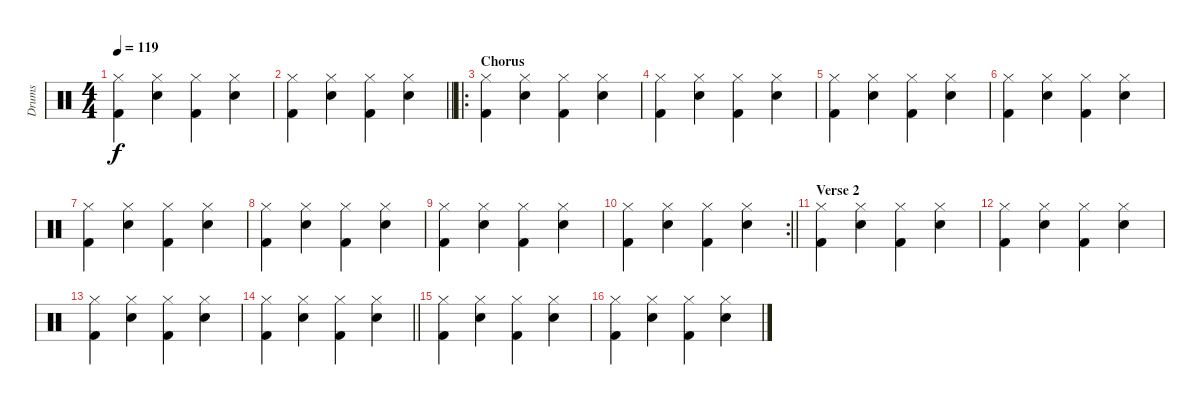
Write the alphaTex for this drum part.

\track ("Drums" "Drums") {instrument percussion}
\staff {score}
\articulation defaults
\ts (4 4)
\tempo 119
\clef neutral
\ks c
("Hi-Hat (closed)" "Kick (hit) 2").4{dy f} ("Hi-Hat (closed)" "Hand Clap (hit)").4 ("Hi-Hat (closed)" "Kick (hit) 2").4 ("Hi-Hat (closed)" "Hand Clap (hit)").4 |
\barLineRight lightlight
("Hi-Hat (closed)" "Kick (hit) 2").4 ("Hi-Hat (closed)" "Hand Clap (hit)").4 ("Hi-Hat (closed)" "Kick (hit) 2").4 ("Hi-Hat (closed)" "Hand Clap (hit)").4 |
\ro
\section ("" "Chorus")
("Hi-Hat (closed)" "Kick (hit) 2").4 ("Hi-Hat (closed)" "Hand Clap (hit)").4 ("Hi-Hat (closed)" "Kick (hit) 2").4 ("Hi-Hat (closed)" "Hand Clap (hit)").4 |
("Hi-Hat (closed)" "Kick (hit) 2").4 ("Hi-Hat (closed)" "Hand Clap (hit)").4 ("Hi-Hat (closed)" "Kick (hit) 2").4 ("Hi-Hat (closed)" "Hand Clap (hit)").4 |
("Hi-Hat (closed)" "Kick (hit) 2").4 ("Hi-Hat (closed)" "Hand Clap (hit)").4 ("Hi-Hat (closed)" "Kick (hit) 2").4 ("Hi-Hat (closed)" "Hand Clap (hit)").4 |
("Hi-Hat (closed)" "Kick (hit) 2").4 ("Hi-Hat (closed)" "Hand Clap (hit)").4 ("Hi-Hat (closed)" "Kick (hit) 2").4 ("Hi-Hat (closed)" "Hand Clap (hit)").4 |
("Hi-Hat (closed)" "Kick (hit) 2").4 ("Hi-Hat (closed)" "Hand Clap (hit)").4 ("Hi-Hat (closed)" "Kick (hit) 2").4 ("Hi-Hat (closed)" "Hand Clap (hit)").4 |
("Hi-Hat (closed)" "Kick (hit) 2").4 ("Hi-Hat (closed)" "Hand Clap (hit)").4 ("Hi-Hat (closed)" "Kick (hit) 2").4 ("Hi-Hat (closed)" "Hand Clap (hit)").4 |
("Hi-Hat (closed)" "Kick (hit) 2").4 ("Hi-Hat (closed)" "Hand Clap (hit)").4 ("Hi-Hat (closed)" "Kick (hit) 2").4 ("Hi-Hat (closed)" "Hand Clap (hit)").4 |
\rc 2
\barLineRight lightlight
("Hi-Hat (closed)" "Kick (hit) 2").4 ("Hi-Hat (closed)" "Hand Clap (hit)").4 ("Hi-Hat (closed)" "Kick (hit) 2").4 ("Hi-Hat (closed)" "Hand Clap (hit)").4 |
\section ("" "Verse 2")
("Hi-Hat (closed)" "Kick (hit) 2").4 ("Hi-Hat (closed)" "Hand Clap (hit)").4 ("Hi-Hat (closed)" "Kick (hit) 2").4 ("Hi-Hat (closed)" "Hand Clap (hit)").4 |
("Hi-Hat (closed)" "Kick (hit) 2").4 ("Hi-Hat (closed)" "Hand Clap (hit)").4 ("Hi-Hat (closed)" "Kick (hit) 2").4 ("Hi-Hat (closed)" "Hand Clap (hit)").4 |
("Hi-Hat (closed)" "Kick (hit) 2").4 ("Hi-Hat (closed)" "Hand Clap (hit)").4 ("Hi-Hat (closed)" "Kick (hit) 2").4 ("Hi-Hat (closed)" "Hand Clap (hit)").4 |
\barLineRight lightlight
("Hi-Hat (closed)" "Kick (hit) 2").4 ("Hi-Hat (closed)" "Hand Clap (hit)").4 ("Hi-Hat (closed)" "Kick (hit) 2").4 ("Hi-Hat (closed)" "Hand Clap (hit)").4 |
("Hi-Hat (closed)" "Kick (hit) 2").4 ("Hi-Hat (closed)" "Hand Clap (hit)").4 ("Hi-Hat (closed)" "Kick (hit) 2").4 ("Hi-Hat (closed)" "Hand Clap (hit)").4 |
("Hi-Hat (closed)" "Kick (hit) 2").4 ("Hi-Hat (closed)" "Hand Clap (hit)").4 ("Hi-Hat (closed)" "Kick (hit) 2").4 ("Hi-Hat (closed)" "Hand Clap (hit)").4
